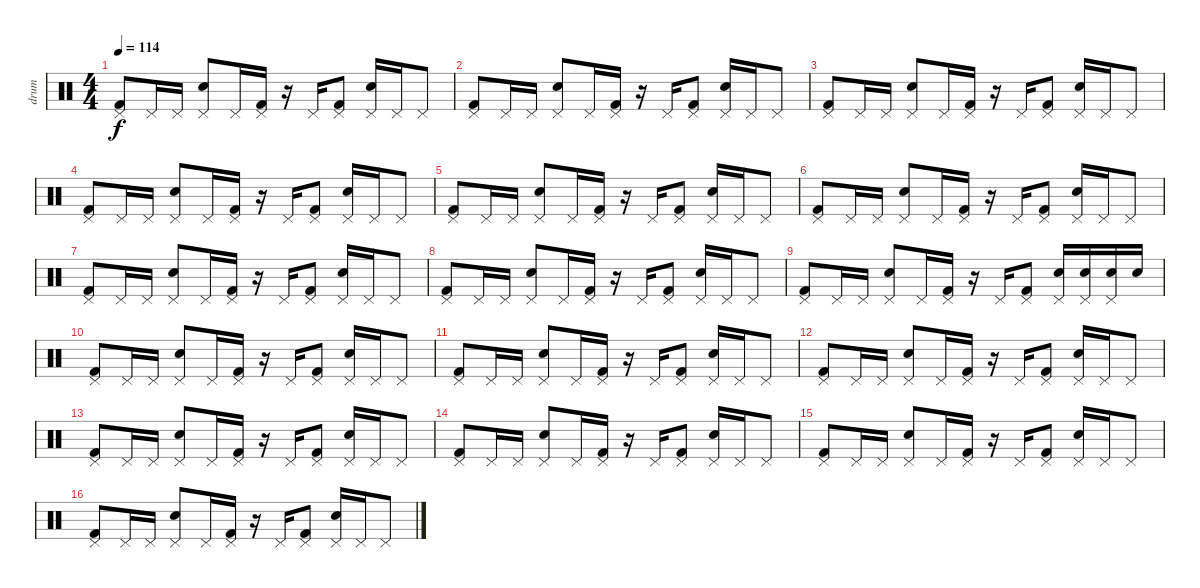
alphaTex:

\track ("drum" "drum") {instrument percussion}
\staff {score}
\articulation defaults
\ts (4 4)
\tempo 114
\clef neutral
\ks c
("Pedal Hi-Hat (hit)" "Kick (hit) 2").8{dy f} "Pedal Hi-Hat (hit)".16 "Pedal Hi-Hat (hit)".16 ("Pedal Hi-Hat (hit)" "Electric Snare (hit)").8 "Pedal Hi-Hat (hit)".16 ("Pedal Hi-Hat (hit)" "Kick (hit) 2").16 r.16 "Pedal Hi-Hat (hit)".16 ("Pedal Hi-Hat (hit)" "Kick (hit) 2").8 ("Pedal Hi-Hat (hit)" "Electric Snare (hit)").16 "Pedal Hi-Hat (hit)".16 "Pedal Hi-Hat (hit)".8 |
("Pedal Hi-Hat (hit)" "Kick (hit) 2").8 "Pedal Hi-Hat (hit)".16 "Pedal Hi-Hat (hit)".16 ("Pedal Hi-Hat (hit)" "Electric Snare (hit)").8 "Pedal Hi-Hat (hit)".16 ("Pedal Hi-Hat (hit)" "Kick (hit) 2").16 r.16 "Pedal Hi-Hat (hit)".16 ("Pedal Hi-Hat (hit)" "Kick (hit) 2").8 ("Pedal Hi-Hat (hit)" "Electric Snare (hit)").16 "Pedal Hi-Hat (hit)".16 "Pedal Hi-Hat (hit)".8 |
("Pedal Hi-Hat (hit)" "Kick (hit) 2").8 "Pedal Hi-Hat (hit)".16 "Pedal Hi-Hat (hit)".16 ("Pedal Hi-Hat (hit)" "Electric Snare (hit)").8 "Pedal Hi-Hat (hit)".16 ("Pedal Hi-Hat (hit)" "Kick (hit) 2").16 r.16 "Pedal Hi-Hat (hit)".16 ("Pedal Hi-Hat (hit)" "Kick (hit) 2").8 ("Pedal Hi-Hat (hit)" "Electric Snare (hit)").16 "Pedal Hi-Hat (hit)".16 "Pedal Hi-Hat (hit)".8 |
("Pedal Hi-Hat (hit)" "Kick (hit) 2").8 "Pedal Hi-Hat (hit)".16 "Pedal Hi-Hat (hit)".16 ("Pedal Hi-Hat (hit)" "Electric Snare (hit)").8 "Pedal Hi-Hat (hit)".16 ("Pedal Hi-Hat (hit)" "Kick (hit) 2").16 r.16 "Pedal Hi-Hat (hit)".16 ("Pedal Hi-Hat (hit)" "Kick (hit) 2").8 ("Pedal Hi-Hat (hit)" "Electric Snare (hit)").16 "Pedal Hi-Hat (hit)".16 "Pedal Hi-Hat (hit)".8 |
("Pedal Hi-Hat (hit)" "Kick (hit) 2").8 "Pedal Hi-Hat (hit)".16 "Pedal Hi-Hat (hit)".16 ("Pedal Hi-Hat (hit)" "Electric Snare (hit)").8 "Pedal Hi-Hat (hit)".16 ("Pedal Hi-Hat (hit)" "Kick (hit) 2").16 r.16 "Pedal Hi-Hat (hit)".16 ("Pedal Hi-Hat (hit)" "Kick (hit) 2").8 ("Pedal Hi-Hat (hit)" "Electric Snare (hit)").16 "Pedal Hi-Hat (hit)".16 "Pedal Hi-Hat (hit)".8 |
("Pedal Hi-Hat (hit)" "Kick (hit) 2").8 "Pedal Hi-Hat (hit)".16 "Pedal Hi-Hat (hit)".16 ("Pedal Hi-Hat (hit)" "Electric Snare (hit)").8 "Pedal Hi-Hat (hit)".16 ("Pedal Hi-Hat (hit)" "Kick (hit) 2").16 r.16 "Pedal Hi-Hat (hit)".16 ("Pedal Hi-Hat (hit)" "Kick (hit) 2").8 ("Pedal Hi-Hat (hit)" "Electric Snare (hit)").16 "Pedal Hi-Hat (hit)".16 "Pedal Hi-Hat (hit)".8 |
("Pedal Hi-Hat (hit)" "Kick (hit) 2").8 "Pedal Hi-Hat (hit)".16 "Pedal Hi-Hat (hit)".16 ("Pedal Hi-Hat (hit)" "Electric Snare (hit)").8 "Pedal Hi-Hat (hit)".16 ("Pedal Hi-Hat (hit)" "Kick (hit) 2").16 r.16 "Pedal Hi-Hat (hit)".16 ("Pedal Hi-Hat (hit)" "Kick (hit) 2").8 ("Pedal Hi-Hat (hit)" "Electric Snare (hit)").16 "Pedal Hi-Hat (hit)".16 "Pedal Hi-Hat (hit)".8 |
("Pedal Hi-Hat (hit)" "Kick (hit) 2").8 "Pedal Hi-Hat (hit)".16 "Pedal Hi-Hat (hit)".16 ("Pedal Hi-Hat (hit)" "Electric Snare (hit)").8 "Pedal Hi-Hat (hit)".16 ("Pedal Hi-Hat (hit)" "Kick (hit) 2").16 r.16 "Pedal Hi-Hat (hit)".16 ("Pedal Hi-Hat (hit)" "Kick (hit) 2").8 ("Pedal Hi-Hat (hit)" "Electric Snare (hit)").16 "Pedal Hi-Hat (hit)".16 "Pedal Hi-Hat (hit)".8 |
("Pedal Hi-Hat (hit)" "Kick (hit) 2").8 "Pedal Hi-Hat (hit)".16 "Pedal Hi-Hat (hit)".16 ("Pedal Hi-Hat (hit)" "Electric Snare (hit)").8 "Pedal Hi-Hat (hit)".16 ("Pedal Hi-Hat (hit)" "Kick (hit) 2").16 r.16 "Pedal Hi-Hat (hit)".16 ("Pedal Hi-Hat (hit)" "Kick (hit) 2").8 ("Pedal Hi-Hat (hit)" "Electric Snare (hit)").16 ("Pedal Hi-Hat (hit)" "Electric Snare (hit)").16 ("Pedal Hi-Hat (hit)" "Electric Snare (hit)").16 "Electric Snare (hit)".16 |
("Pedal Hi-Hat (hit)" "Kick (hit) 2").8 "Pedal Hi-Hat (hit)".16 "Pedal Hi-Hat (hit)".16 ("Pedal Hi-Hat (hit)" "Electric Snare (hit)").8 "Pedal Hi-Hat (hit)".16 ("Pedal Hi-Hat (hit)" "Kick (hit) 2").16 r.16 "Pedal Hi-Hat (hit)".16 ("Pedal Hi-Hat (hit)" "Kick (hit) 2").8 ("Pedal Hi-Hat (hit)" "Electric Snare (hit)").16 "Pedal Hi-Hat (hit)".16 "Pedal Hi-Hat (hit)".8 |
("Pedal Hi-Hat (hit)" "Kick (hit) 2").8 "Pedal Hi-Hat (hit)".16 "Pedal Hi-Hat (hit)".16 ("Pedal Hi-Hat (hit)" "Electric Snare (hit)").8 "Pedal Hi-Hat (hit)".16 ("Pedal Hi-Hat (hit)" "Kick (hit) 2").16 r.16 "Pedal Hi-Hat (hit)".16 ("Pedal Hi-Hat (hit)" "Kick (hit) 2").8 ("Pedal Hi-Hat (hit)" "Electric Snare (hit)").16 "Pedal Hi-Hat (hit)".16 "Pedal Hi-Hat (hit)".8 |
("Pedal Hi-Hat (hit)" "Kick (hit) 2").8 "Pedal Hi-Hat (hit)".16 "Pedal Hi-Hat (hit)".16 ("Pedal Hi-Hat (hit)" "Electric Snare (hit)").8 "Pedal Hi-Hat (hit)".16 ("Pedal Hi-Hat (hit)" "Kick (hit) 2").16 r.16 "Pedal Hi-Hat (hit)".16 ("Pedal Hi-Hat (hit)" "Kick (hit) 2").8 ("Pedal Hi-Hat (hit)" "Electric Snare (hit)").16 "Pedal Hi-Hat (hit)".16 "Pedal Hi-Hat (hit)".8 |
("Pedal Hi-Hat (hit)" "Kick (hit) 2").8 "Pedal Hi-Hat (hit)".16 "Pedal Hi-Hat (hit)".16 ("Pedal Hi-Hat (hit)" "Electric Snare (hit)").8 "Pedal Hi-Hat (hit)".16 ("Pedal Hi-Hat (hit)" "Kick (hit) 2").16 r.16 "Pedal Hi-Hat (hit)".16 ("Pedal Hi-Hat (hit)" "Kick (hit) 2").8 ("Pedal Hi-Hat (hit)" "Electric Snare (hit)").16 "Pedal Hi-Hat (hit)".16 "Pedal Hi-Hat (hit)".8 |
("Pedal Hi-Hat (hit)" "Kick (hit) 2").8 "Pedal Hi-Hat (hit)".16 "Pedal Hi-Hat (hit)".16 ("Pedal Hi-Hat (hit)" "Electric Snare (hit)").8 "Pedal Hi-Hat (hit)".16 ("Pedal Hi-Hat (hit)" "Kick (hit) 2").16 r.16 "Pedal Hi-Hat (hit)".16 ("Pedal Hi-Hat (hit)" "Kick (hit) 2").8 ("Pedal Hi-Hat (hit)" "Electric Snare (hit)").16 "Pedal Hi-Hat (hit)".16 "Pedal Hi-Hat (hit)".8 |
("Pedal Hi-Hat (hit)" "Kick (hit) 2").8 "Pedal Hi-Hat (hit)".16 "Pedal Hi-Hat (hit)".16 ("Pedal Hi-Hat (hit)" "Electric Snare (hit)").8 "Pedal Hi-Hat (hit)".16 ("Pedal Hi-Hat (hit)" "Kick (hit) 2").16 r.16 "Pedal Hi-Hat (hit)".16 ("Pedal Hi-Hat (hit)" "Kick (hit) 2").8 ("Pedal Hi-Hat (hit)" "Electric Snare (hit)").16 "Pedal Hi-Hat (hit)".16 "Pedal Hi-Hat (hit)".8 |
("Pedal Hi-Hat (hit)" "Kick (hit) 2").8 "Pedal Hi-Hat (hit)".16 "Pedal Hi-Hat (hit)".16 ("Pedal Hi-Hat (hit)" "Electric Snare (hit)").8 "Pedal Hi-Hat (hit)".16 ("Pedal Hi-Hat (hit)" "Kick (hit) 2").16 r.16 "Pedal Hi-Hat (hit)".16 ("Pedal Hi-Hat (hit)" "Kick (hit) 2").8 ("Pedal Hi-Hat (hit)" "Electric Snare (hit)").16 "Pedal Hi-Hat (hit)".16 "Pedal Hi-Hat (hit)".8
